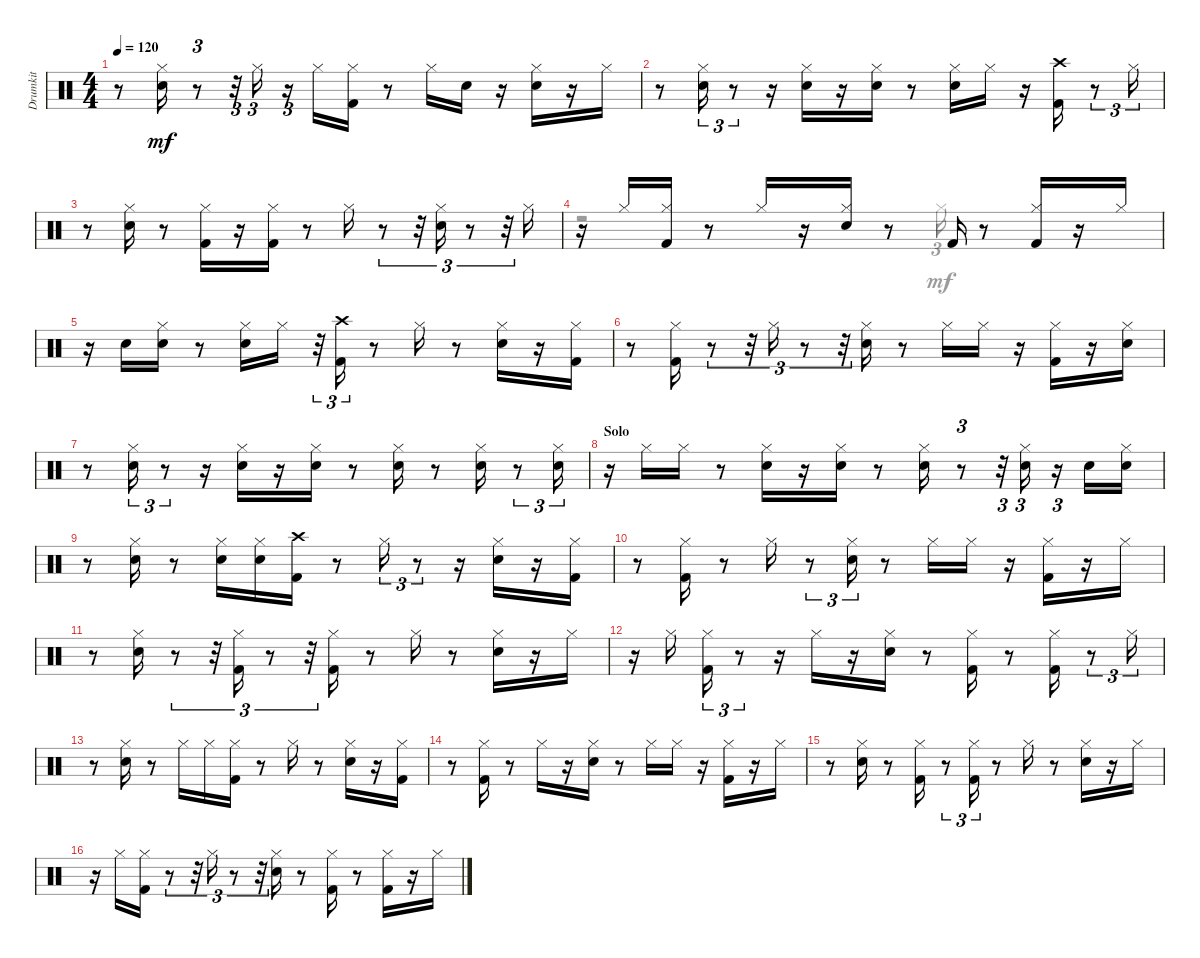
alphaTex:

\track ("Drumkit" "Drumkit") {instrument percussion}
\staff {score}
\articulation defaults
\voice
\ts (4 4)
\tempo 120
\clef neutral
\ks aminor
r.8{dy mf} ("Snare (hit) 2" "Hi-Hat (closed)").16 r.8{tu (3 2)} r.32{tu (3 2)} "Hi-Hat (closed)".16{tu (3 2)} r.16{tu (3 2)} "Hi-Hat (closed)".16 ("Kick (hit) 2" "Hi-Hat (closed)").16 r.8 "Hi-Hat (closed)".16 "Snare (hit) 2".16 r.16 ("Snare (hit) 2" "Hi-Hat (closed)").16 r.16 "Hi-Hat (closed)".16 |
r.8 ("Snare (hit) 2" "Hi-Hat (closed)").16{tu (3 2)} r.8{tu (3 2)} r.16 ("Snare (hit) 2" "Hi-Hat (closed)").16 r.16 ("Snare (hit) 2" "Hi-Hat (closed)").16 r.8 ("Snare (hit) 2" "Hi-Hat (closed)").16 "Hi-Hat (closed)".16 r.16 ("Kick (hit) 2" "Crash high (hit)").16 r.8{tu (3 2)} "Hi-Hat (closed)".16{tu (3 2)} |
r.8 ("Snare (hit) 2" "Hi-Hat (closed)").16 r.8 ("Kick (hit) 2" "Hi-Hat (closed)").16 r.16 ("Kick (hit) 2" "Hi-Hat (closed)").16 r.8 "Hi-Hat (closed)".16 r.8{tu (3 2)} r.32{tu (3 2)} ("Snare (hit) 2" "Hi-Hat (closed)").16{tu (3 2)} r.8{tu (3 2)} r.32{tu (3 2)} "Hi-Hat (closed)".16 |
r.16 "Hi-Hat (closed)".16 ("Kick (hit) 2" "Hi-Hat (closed)").16 r.8 "Hi-Hat (closed)".16 r.16 ("Snare (hit) 2" "Hi-Hat (closed)").16 r.8 "Kick (hit) 2".16 r.8 ("Kick (hit) 2" "Hi-Hat (closed)").16 r.16 "Hi-Hat (closed)".16 |
r.16 "Snare (hit) 2".16 ("Snare (hit) 2" "Hi-Hat (closed)").16 r.8 ("Snare (hit) 2" "Hi-Hat (closed)").16 "Hi-Hat (closed)".16 r.32{tu (3 2)} ("Kick (hit) 2" "Crash high (hit)").16{tu (3 2)} r.8 "Hi-Hat (closed)".16 r.8 ("Snare (hit) 2" "Hi-Hat (closed)").16 r.16 ("Kick (hit) 2" "Hi-Hat (closed)").16 |
r.8 ("Kick (hit) 2" "Hi-Hat (closed)").16 r.8{tu (3 2)} r.32{tu (3 2)} "Hi-Hat (closed)".16{tu (3 2)} r.8{tu (3 2)} r.32{tu (3 2)} ("Snare (hit) 2" "Hi-Hat (closed)").16 r.8 "Hi-Hat (closed)".16 "Hi-Hat (closed)".16 r.16 ("Kick (hit) 2" "Hi-Hat (closed)").16 r.16 ("Snare (hit) 2" "Hi-Hat (closed)").16 |
r.8 ("Snare (hit) 2" "Hi-Hat (closed)").16{tu (3 2)} r.8{tu (3 2)} r.16 ("Snare (hit) 2" "Hi-Hat (closed)").16 r.16 ("Snare (hit) 2" "Hi-Hat (closed)").16 r.8 ("Snare (hit) 2" "Hi-Hat (closed)").16 r.8 ("Snare (hit) 2" "Hi-Hat (closed)").16 r.8{tu (3 2)} ("Snare (hit) 2" "Hi-Hat (closed)").16{tu (3 2)} |
\section ("" "Solo")
r.16 "Hi-Hat (closed)".16 "Hi-Hat (closed)".16 r.8 ("Snare (hit) 2" "Hi-Hat (closed)").16 r.16 ("Snare (hit) 2" "Hi-Hat (closed)").16 r.8 ("Snare (hit) 2" "Hi-Hat (closed)").16 r.8{tu (3 2)} r.32{tu (3 2)} ("Snare (hit) 2" "Hi-Hat (closed)").16{tu (3 2)} r.16{tu (3 2)} "Snare (hit) 2".16 ("Snare (hit) 2" "Hi-Hat (closed)").16 |
r.8 ("Snare (hit) 2" "Hi-Hat (closed)").16 r.8 ("Snare (hit) 2" "Hi-Hat (closed)").16 ("Snare (hit) 2" "Hi-Hat (closed)").16 ("Kick (hit) 2" "Crash high (hit)").16 r.8 "Hi-Hat (closed)".16{tu (3 2)} r.8{tu (3 2)} r.16 ("Snare (hit) 2" "Hi-Hat (closed)").16 r.16 ("Kick (hit) 2" "Hi-Hat (closed)").16 |
r.8 ("Kick (hit) 2" "Hi-Hat (closed)").16 r.8 "Hi-Hat (closed)".16 r.8{tu (3 2)} ("Snare (hit) 2" "Hi-Hat (closed)").16{tu (3 2)} r.8 "Hi-Hat (closed)".16 "Hi-Hat (closed)".16 r.16 ("Kick (hit) 2" "Hi-Hat (closed)").16 r.16 "Hi-Hat (closed)".16 |
r.8 ("Snare (hit) 2" "Hi-Hat (closed)").16 r.8{tu (3 2)} r.32{tu (3 2)} ("Kick (hit) 2" "Hi-Hat (closed)").16{tu (3 2)} r.8{tu (3 2)} r.32{tu (3 2)} ("Kick (hit) 2" "Hi-Hat (closed)").16 r.8 "Hi-Hat (closed)".16 r.8 ("Snare (hit) 2" "Hi-Hat (closed)").16 r.16 "Hi-Hat (closed)".16 |
r.16 "Hi-Hat (closed)".16 ("Kick (hit) 2" "Hi-Hat (closed)").16{tu (3 2)} r.8{tu (3 2)} r.16 "Hi-Hat (closed)".16 r.16 ("Snare (hit) 2" "Hi-Hat (closed)").16 r.8 ("Kick (hit) 2" "Hi-Hat (closed)").16 r.8 ("Kick (hit) 2" "Hi-Hat (closed)").16 r.8{tu (3 2)} "Hi-Hat (closed)".16{tu (3 2)} |
r.8 ("Snare (hit) 2" "Hi-Hat (closed)").16 r.8 "Hi-Hat (closed)".16 "Hi-Hat (closed)".16 ("Kick (hit) 2" "Hi-Hat (closed)").16 r.8 "Hi-Hat (closed)".16 r.8 ("Snare (hit) 2" "Hi-Hat (closed)").16 r.16 ("Kick (hit) 2" "Hi-Hat (closed)").16 |
r.8 ("Kick (hit) 2" "Hi-Hat (closed)").16 r.8 "Hi-Hat (closed)".16 r.16 ("Snare (hit) 2" "Hi-Hat (closed)").16 r.8 "Hi-Hat (closed)".16 "Hi-Hat (closed)".16 r.16 ("Kick (hit) 2" "Hi-Hat (closed)").16 r.16 "Hi-Hat (closed)".16 |
r.8 ("Snare (hit) 2" "Hi-Hat (closed)").16 r.8 ("Kick (hit) 2" "Hi-Hat (closed)").16 r.8{tu (3 2)} ("Kick (hit) 2" "Hi-Hat (closed)").16{tu (3 2)} r.8 "Hi-Hat (closed)".16 r.8 ("Snare (hit) 2" "Hi-Hat (closed)").16 r.16 "Hi-Hat (closed)".16 |
r.16 "Hi-Hat (closed)".16 ("Kick (hit) 2" "Hi-Hat (closed)").16 r.8{tu (3 2)} r.32{tu (3 2)} "Hi-Hat (closed)".16{tu (3 2)} r.8{tu (3 2)} r.32{tu (3 2)} ("Snare (hit) 2" "Hi-Hat (closed)").16 r.8 ("Kick (hit) 2" "Hi-Hat (closed)").16 r.8 ("Kick (hit) 2" "Hi-Hat (closed)").16 r.16 "Hi-Hat (closed)".16
\voice
\clef neutral
\ottava regular
\simile none
\ks aminor
|
|
|
r.2 r.8 "Hi-Hat (closed)".16{tu (3 2)} |
|
|
|
|
|
|
|
|
|
|
|
